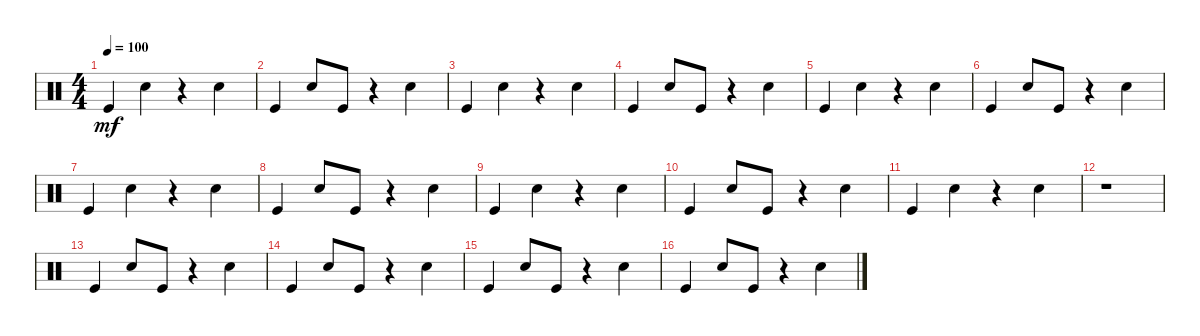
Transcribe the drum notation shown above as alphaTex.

\track "" {instrument percussion}
\staff {score}
\articulation defaults
\ts (4 4)
\tempo 100
\clef neutral
\ks c "Kick (hit)".4{dy mf} "Snare (hit) 2".4
r.4 "Snare (hit) 2".4 |
"Kick (hit)".4 "Snare (hit) 2".8 "Kick (hit)".8 r.4 "Snare (hit) 2".4 |
"Kick (hit)".4 "Snare (hit) 2".4 r.4 "Snare (hit) 2".4 |
"Kick (hit)".4 "Snare (hit) 2".8 "Kick (hit)".8 r.4 "Snare (hit) 2".4 |
"Kick (hit)".4 "Snare (hit) 2".4 r.4 "Snare (hit) 2".4 |
"Kick (hit)".4 "Snare (hit) 2".8 "Kick (hit)".8 r.4 "Snare (hit) 2".4 |
"Kick (hit)".4 "Snare (hit) 2".4 r.4 "Snare (hit) 2".4 |
"Kick (hit)".4 "Snare (hit) 2".8 "Kick (hit)".8 r.4 "Snare (hit) 2".4 |
"Kick (hit)".4 "Snare (hit) 2".4 r.4 "Snare (hit) 2".4 |
"Kick (hit)".4 "Snare (hit) 2".8 "Kick (hit)".8 r.4 "Snare (hit) 2".4 |
"Kick (hit)".4 "Snare (hit) 2".4 r.4 "Snare (hit) 2".4 |
r.1 |
"Kick (hit)".4 "Snare (hit) 2".8 "Kick (hit)".8 r.4 "Snare (hit) 2".4 |
"Kick (hit)".4 "Snare (hit) 2".8 "Kick (hit)".8 r.4 "Snare (hit) 2".4 |
"Kick (hit)".4 "Snare (hit) 2".8 "Kick (hit)".8 r.4 "Snare (hit) 2".4 |
"Kick (hit)".4 "Snare (hit) 2".8 "Kick (hit)".8 r.4 "Snare (hit) 2".4
